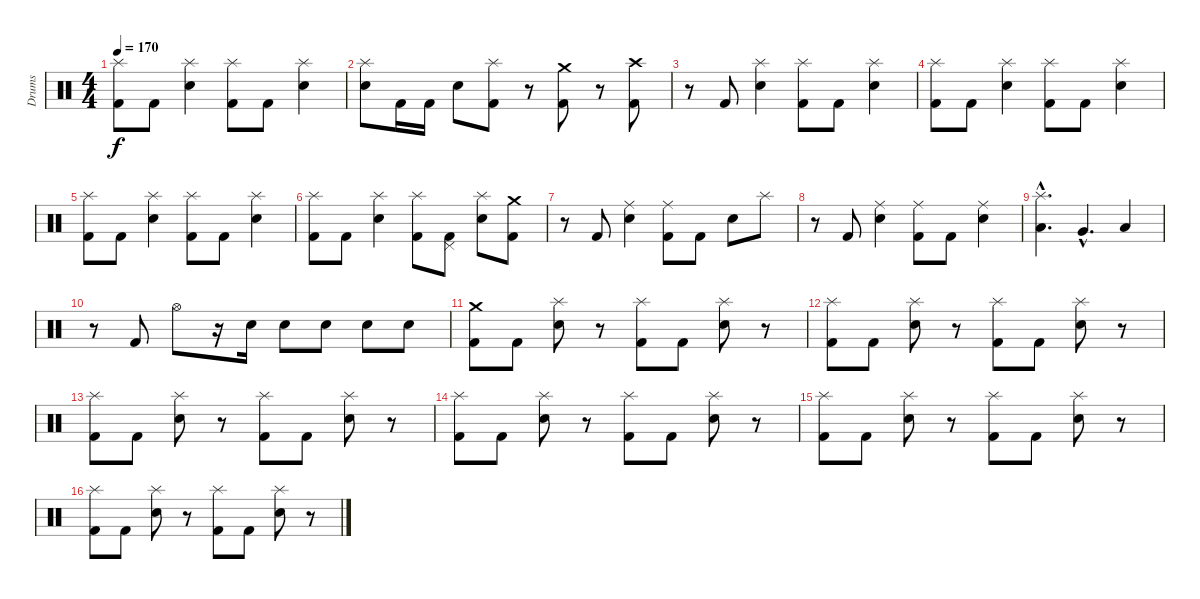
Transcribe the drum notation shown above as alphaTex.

\track ("Drums" "Drums") {instrument percussion}
\staff {score}
\articulation defaults
\ts (4 4)
\tempo 170
\clef neutral
\ks c
("Splash (hit)" "Kick (hit) 2").8{dy f} "Kick (hit) 2".8 ("Splash (hit)" "Electric Snare (hit)").4 ("Splash (hit)" "Kick (hit) 2").8 "Kick (hit) 2".8 ("Splash (hit)" "Electric Snare (hit)").4 |
("Splash (hit)" "Electric Snare (hit)").8 "Kick (hit) 2".16 "Kick (hit) 2".16 "Electric Snare (hit)".8 ("Splash (hit)" "Kick (hit) 2").8 r.8 ("Crash medium (hit)" "Kick (hit) 2").8 r.8 ("Crash high (hit)" "Kick (hit) 2").8 |
r.8 "Kick (hit) 2".8 ("Splash (hit)" "Electric Snare (hit)").4 ("Splash (hit)" "Kick (hit) 2").8 "Kick (hit) 2".8 ("Splash (hit)" "Electric Snare (hit)").4 |
("Splash (hit)" "Kick (hit) 2").8 "Kick (hit) 2".8 ("Splash (hit)" "Electric Snare (hit)").4 ("Splash (hit)" "Kick (hit) 2").8 "Kick (hit) 2".8 ("Splash (hit)" "Electric Snare (hit)").4 |
("Splash (hit)" "Kick (hit) 2").8 "Kick (hit) 2".8 ("Splash (hit)" "Electric Snare (hit)").4 ("Splash (hit)" "Kick (hit) 2").8 "Kick (hit) 2".8 ("Splash (hit)" "Electric Snare (hit)").4 |
("Splash (hit)" "Kick (hit) 2").8 "Kick (hit) 2".8 ("Splash (hit)" "Electric Snare (hit)").4 ("Splash (hit)" "Kick (hit) 2").8 ("Pedal Hi-Hat (hit)" "Kick (hit) 2").8 ("Splash (hit)" "Electric Snare (hit)").8 ("Crash medium (hit)" "Kick (hit) 2").8 |
r.8 "Kick (hit) 2".8 ("Ride (middle)" "Electric Snare (hit)").4 ("Ride (middle)" "Kick (hit) 2").8 "Kick (hit) 2".8 "Electric Snare (hit)".8 "Splash (hit)".8 |
r.8 "Kick (hit) 2".8 ("Ride (middle)" "Electric Snare (hit)").4 ("Ride (middle)" "Kick (hit) 2").8 "Kick (hit) 2".8 ("Ride (middle)" "Electric Snare (hit)").4 |
("Splash (hit)"{hac} "Low Floor Tom (hit)"{hac}).4{d} "Very Low Tom (hit)"{hac}.4{d} "Low Tom (hit)".4 |
r.8 "Kick (hit) 2".8 "Hi-Hat (open)".8 r.16 "Electric Snare (hit)".16 "Electric Snare (hit)".8 "Electric Snare (hit)".8 "Electric Snare (hit)".8 "Electric Snare (hit)".8 |
("Crash medium (hit)" "Kick (hit) 2").8 "Kick (hit) 2".8 ("Splash (hit)" "Electric Snare (hit)").8 r.8 ("Splash (hit)" "Kick (hit) 2").8 "Kick (hit) 2".8 ("Splash (hit)" "Electric Snare (hit)").8 r.8 |
("Splash (hit)" "Kick (hit) 2").8 "Kick (hit) 2".8 ("Splash (hit)" "Electric Snare (hit)").8 r.8 ("Splash (hit)" "Kick (hit) 2").8 "Kick (hit) 2".8 ("Splash (hit)" "Electric Snare (hit)").8 r.8 |
("Splash (hit)" "Kick (hit) 2").8 "Kick (hit) 2".8 ("Splash (hit)" "Electric Snare (hit)").8 r.8 ("Splash (hit)" "Kick (hit) 2").8 "Kick (hit) 2".8 ("Splash (hit)" "Electric Snare (hit)").8 r.8 |
("Splash (hit)" "Kick (hit) 2").8 "Kick (hit) 2".8 ("Splash (hit)" "Electric Snare (hit)").8 r.8 ("Splash (hit)" "Kick (hit) 2").8 "Kick (hit) 2".8 ("Splash (hit)" "Electric Snare (hit)").8 r.8 |
("Splash (hit)" "Kick (hit) 2").8 "Kick (hit) 2".8 ("Splash (hit)" "Electric Snare (hit)").8 r.8 ("Splash (hit)" "Kick (hit) 2").8 "Kick (hit) 2".8 ("Splash (hit)" "Electric Snare (hit)").8 r.8 |
("Splash (hit)" "Kick (hit) 2").8 "Kick (hit) 2".8 ("Splash (hit)" "Electric Snare (hit)").8 r.8 ("Splash (hit)" "Kick (hit) 2").8 "Kick (hit) 2".8 ("Splash (hit)" "Electric Snare (hit)").8 r.8
